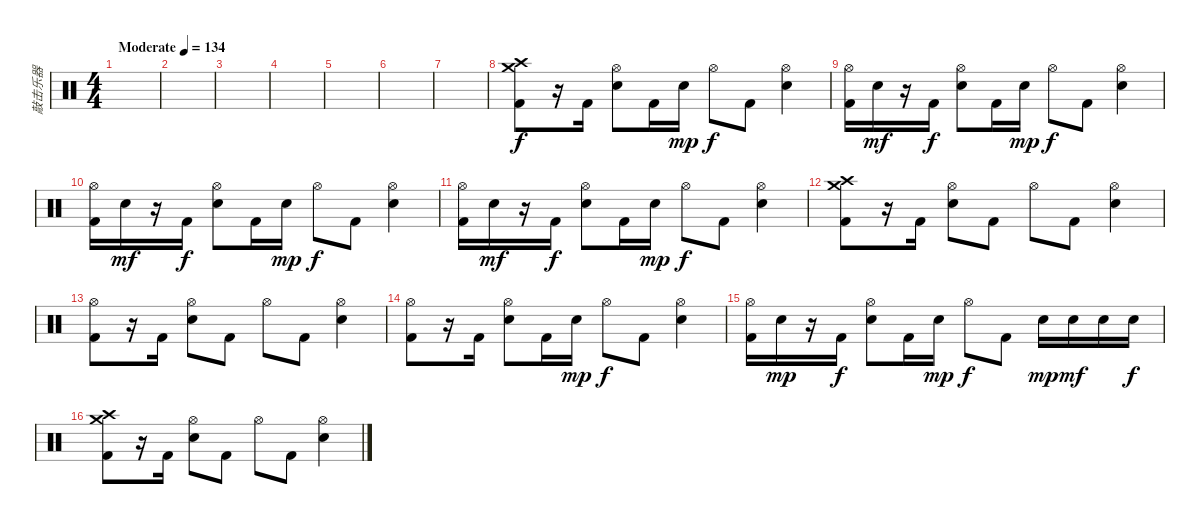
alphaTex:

\track ("敲击乐器" "敲击乐器") {instrument percussion}
\staff {score}
\articulation defaults
\ts (4 4)
\tempo (134 "Moderate")
\clef neutral
\ks c
|
|
|
|
|
|
|
("Crash high (hit)" "Crash medium (hit)" "Kick (hit) 2").8 r.16 "Kick (hit) 2".16 ("Hi-Hat (open)" "Electric Snare (hit)").8 "Kick (hit) 2".16 "Electric Snare (hit)".16{dy mp} "Hi-Hat (open)".8{dy f} "Kick (hit) 2".8 ("Hi-Hat (open)" "Electric Snare (hit)").4 |
("Hi-Hat (open)" "Kick (hit) 2").16 "Electric Snare (hit)".16{dy mf} r.16 "Kick (hit) 2".16{dy f} ("Hi-Hat (open)" "Electric Snare (hit)").8 "Kick (hit) 2".16 "Electric Snare (hit)".16{dy mp} "Hi-Hat (open)".8{dy f} "Kick (hit) 2".8 ("Hi-Hat (open)" "Electric Snare (hit)").4 |
("Hi-Hat (open)" "Kick (hit) 2").16 "Electric Snare (hit)".16{dy mf} r.16 "Kick (hit) 2".16{dy f} ("Hi-Hat (open)" "Electric Snare (hit)").8 "Kick (hit) 2".16 "Electric Snare (hit)".16{dy mp} "Hi-Hat (open)".8{dy f} "Kick (hit) 2".8 ("Hi-Hat (open)" "Electric Snare (hit)").4 |
("Hi-Hat (open)" "Kick (hit) 2").16 "Electric Snare (hit)".16{dy mf} r.16 "Kick (hit) 2".16{dy f} ("Hi-Hat (open)" "Electric Snare (hit)").8 "Kick (hit) 2".16 "Electric Snare (hit)".16{dy mp} "Hi-Hat (open)".8{dy f} "Kick (hit) 2".8 ("Hi-Hat (open)" "Electric Snare (hit)").4 |
("Crash high (hit)" "Crash medium (hit)" "Kick (hit) 2").8 r.16 "Kick (hit) 2".16 ("Hi-Hat (open)" "Electric Snare (hit)").8 "Kick (hit) 2".8 "Hi-Hat (open)".8 "Kick (hit) 2".8 ("Hi-Hat (open)" "Electric Snare (hit)").4 |
("Hi-Hat (open)" "Kick (hit) 2").8 r.16 "Kick (hit) 2".16 ("Hi-Hat (open)" "Electric Snare (hit)").8 "Kick (hit) 2".8 "Hi-Hat (open)".8 "Kick (hit) 2".8 ("Hi-Hat (open)" "Electric Snare (hit)").4 |
("Hi-Hat (open)" "Kick (hit) 2").8 r.16 "Kick (hit) 2".16 ("Hi-Hat (open)" "Electric Snare (hit)").8 "Kick (hit) 2".16 "Electric Snare (hit)".16{dy mp} "Hi-Hat (open)".8{dy f} "Kick (hit) 2".8 ("Hi-Hat (open)" "Electric Snare (hit)").4 |
("Hi-Hat (open)" "Kick (hit) 2").16 "Electric Snare (hit)".16{dy mp} r.16 "Kick (hit) 2".16{dy f} ("Hi-Hat (open)" "Electric Snare (hit)").8 "Kick (hit) 2".16 "Electric Snare (hit)".16{dy mp} "Hi-Hat (open)".8{dy f} "Kick (hit) 2".8 "Electric Snare (hit)".16{dy mp} "Electric Snare (hit)".16{dy mf} "Electric Snare (hit)".16 "Electric Snare (hit)".16{dy f} |
("Crash high (hit)" "Crash medium (hit)" "Kick (hit) 2").8 r.16 "Kick (hit) 2".16 ("Hi-Hat (open)" "Electric Snare (hit)").8 "Kick (hit) 2".8 "Hi-Hat (open)".8 "Kick (hit) 2".8 ("Hi-Hat (open)" "Electric Snare (hit)").4
